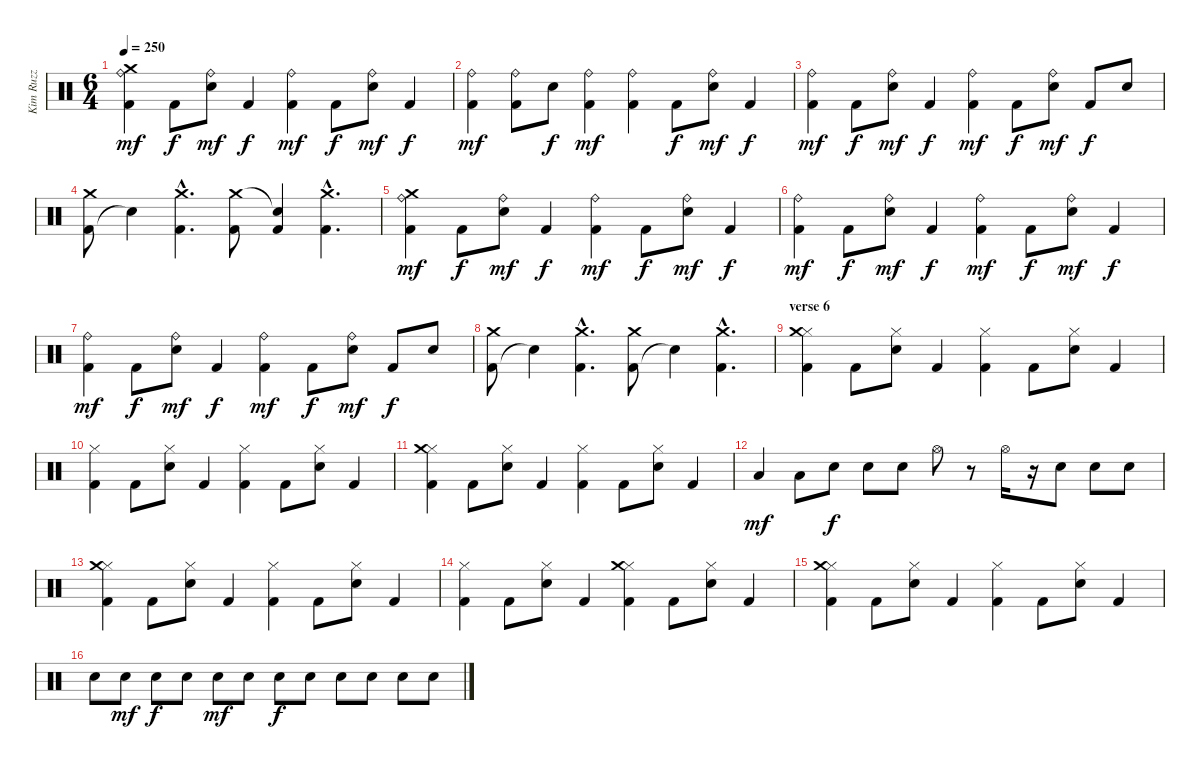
\track ("Kim Ruzz" "Kim Ruzz") {instrument percussion}
\staff {score}
\articulation defaults
\ts (6 4)
\tempo 250
\clef neutral
\ks c
("Kick (hit) 2" "Ride (bell)" "Crash medium (hit)").4{dy mf} "Kick (hit) 2".8{dy f} ("Ride (bell)" "Snare (hit) 2").8{dy mf} "Kick (hit) 2".4{dy f} ("Kick (hit) 2" "Ride (bell)").4{dy mf} "Kick (hit) 2".8{dy f} ("Ride (bell)" "Snare (hit) 2").8{dy mf} "Kick (hit) 2".4{dy f} |
("Kick (hit) 2" "Ride (bell)").4{dy mf} ("Kick (hit) 2" "Ride (bell)").8 "Snare (hit) 2".8{dy f} ("Kick (hit) 2" "Ride (bell)").4{dy mf} ("Kick (hit) 2" "Ride (bell)").4 "Kick (hit) 2".8{dy f} ("Ride (bell)" "Snare (hit) 2").8{dy mf} "Kick (hit) 2".4{dy f} |
("Kick (hit) 2" "Ride (bell)").4{dy mf} "Kick (hit) 2".8{dy f} ("Ride (bell)" "Snare (hit) 2").8{dy mf} "Kick (hit) 2".4{dy f} ("Kick (hit) 2" "Ride (bell)").4{dy mf} "Kick (hit) 2".8{dy f} ("Ride (bell)" "Snare (hit) 2").8{dy mf} "Kick (hit) 2".8{dy f} "Snare (hit) 2".8 |
("Kick (hit) 2" "Crash medium (hit)").8 "Snare (hit)"{t}.4 ("Kick (hit) 2"{hac} "Crash medium (hit)"{hac}).4{d} ("Kick (hit) 2" "Crash medium (hit)").8 ("Kick (hit) 2" "Snare (hit)"{t}).4 ("Kick (hit) 2"{hac} "Crash medium (hit)"{hac}).4{d} |
("Kick (hit) 2" "Ride (bell)" "Crash medium (hit)").4{dy mf} "Kick (hit) 2".8{dy f} ("Ride (bell)" "Snare (hit) 2").8{dy mf} "Kick (hit) 2".4{dy f} ("Kick (hit) 2" "Ride (bell)").4{dy mf} "Kick (hit) 2".8{dy f} ("Ride (bell)" "Snare (hit) 2").8{dy mf} "Kick (hit) 2".4{dy f} |
("Kick (hit) 2" "Ride (bell)").4{dy mf} "Kick (hit) 2".8{dy f} ("Ride (bell)" "Snare (hit) 2").8{dy mf} "Kick (hit) 2".4{dy f} ("Kick (hit) 2" "Ride (bell)").4{dy mf} "Kick (hit) 2".8{dy f} ("Ride (bell)" "Snare (hit) 2").8{dy mf} "Kick (hit) 2".4{dy f} |
("Kick (hit) 2" "Ride (bell)").4{dy mf} "Kick (hit) 2".8{dy f} ("Ride (bell)" "Snare (hit) 2").8{dy mf} "Kick (hit) 2".4{dy f} ("Kick (hit) 2" "Ride (bell)").4{dy mf} "Kick (hit) 2".8{dy f} ("Ride (bell)" "Snare (hit) 2").8{dy mf} "Kick (hit) 2".8{dy f} "Snare (hit) 2".8 |
("Kick (hit) 2" "Crash medium (hit)").8 "Snare (hit)"{t}.4 ("Kick (hit) 2"{hac} "Crash medium (hit)"{hac}).4{d} ("Kick (hit) 2" "Crash medium (hit)").8 "Snare (hit)"{t}.4 ("Kick (hit) 2"{hac} "Crash medium (hit)"{hac}).4{d} |
\section ("" "verse 6")
("Kick (hit) 2" "Hi-Hat (closed)" "Crash medium (hit)").4 "Kick (hit) 2".8 ("Hi-Hat (closed)" "Snare (hit) 2").8 "Kick (hit) 2".4 ("Kick (hit) 2" "Hi-Hat (closed)").4 "Kick (hit) 2".8 ("Hi-Hat (closed)" "Snare (hit) 2").8 "Kick (hit) 2".4 |
("Kick (hit) 2" "Hi-Hat (closed)").4 "Kick (hit) 2".8 ("Hi-Hat (closed)" "Snare (hit) 2").8 "Kick (hit) 2".4 ("Kick (hit) 2" "Hi-Hat (closed)").4 "Kick (hit) 2".8 ("Hi-Hat (closed)" "Snare (hit) 2").8 "Kick (hit) 2".4 |
("Kick (hit) 2" "Hi-Hat (closed)" "Crash medium (hit)").4 "Kick (hit) 2".8 ("Hi-Hat (closed)" "Snare (hit) 2").8 "Kick (hit) 2".4 ("Kick (hit) 2" "Hi-Hat (closed)").4 "Kick (hit) 2".8 ("Hi-Hat (closed)" "Snare (hit) 2").8 "Kick (hit) 2".4 |
"Low Tom (hit)".4{dy mf} "Low Tom (hit)".8 "Snare (hit) 2".8{dy f} "Snare (hit) 2".8 "Snare (hit) 2".8 "Hi-Hat (open)".8 r.8 "Hi-Hat (open)".16 r.16 "Snare (hit) 2".8 "Snare (hit) 2".8 "Snare (hit) 2".8 |
("Kick (hit) 2" "Hi-Hat (closed)" "Crash medium (hit)").4 "Kick (hit) 2".8 ("Hi-Hat (closed)" "Snare (hit) 2").8 "Kick (hit) 2".4 ("Kick (hit) 2" "Hi-Hat (closed)").4 "Kick (hit) 2".8 ("Hi-Hat (closed)" "Snare (hit) 2").8 "Kick (hit) 2".4 |
("Kick (hit) 2" "Hi-Hat (closed)").4 "Kick (hit) 2".8 ("Hi-Hat (closed)" "Snare (hit) 2").8 "Kick (hit) 2".4 ("Kick (hit) 2" "Hi-Hat (closed)" "Crash medium (hit)").4 "Kick (hit) 2".8 ("Hi-Hat (closed)" "Snare (hit) 2").8 "Kick (hit) 2".4 |
("Kick (hit) 2" "Hi-Hat (closed)" "Crash medium (hit)").4 "Kick (hit) 2".8 ("Hi-Hat (closed)" "Snare (hit) 2").8 "Kick (hit) 2".4 ("Kick (hit) 2" "Hi-Hat (closed)").4 "Kick (hit) 2".8 ("Hi-Hat (closed)" "Snare (hit) 2").8 "Kick (hit) 2".4 |
"Snare (hit) 2".8 "Snare (hit) 2".8{dy mf} "Snare (hit) 2".8{dy f} "Snare (hit) 2".8 "Snare (hit) 2".8{dy mf} "Snare (hit) 2".8 "Snare (hit) 2".8{dy f} "Snare (hit) 2".8 "Snare (hit) 2".8 "Snare (hit) 2".8 "Snare (hit) 2".8 "Snare (hit) 2".8
